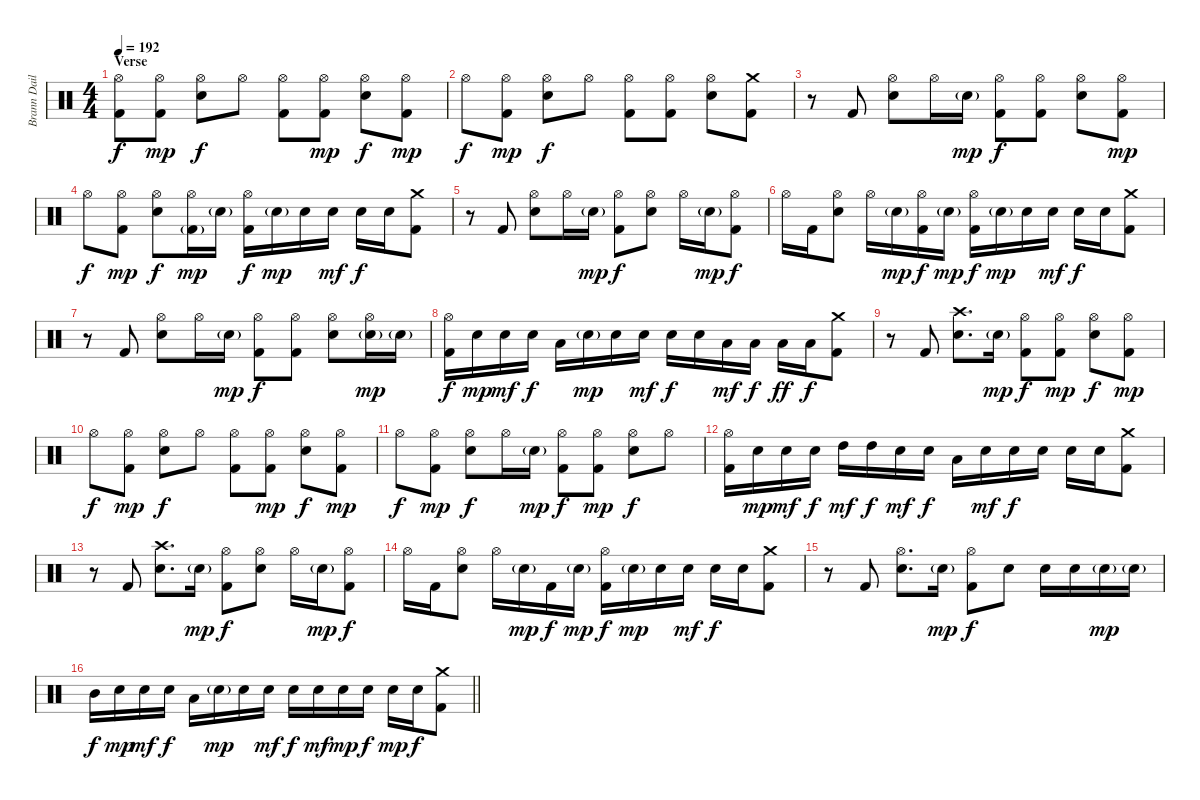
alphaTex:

\track ("Brann Dailor - Drums" "Brann Dail") {instrument percussion}
\staff {score}
\articulation defaults
\ts (4 4)
\section ("" "Verse")
\tempo 192
\clef neutral
\ks c
("Hi-Hat (open)" "Kick (hit) 2").8{dy f} ("Hi-Hat (open)" "Kick (hit) 2").8{dy mp} ("Hi-Hat (open)" "Electric Snare (hit)").8{dy f} "Hi-Hat (open)".8 ("Hi-Hat (open)" "Kick (hit) 2").8 ("Hi-Hat (open)" "Kick (hit) 2").8{dy mp} ("Hi-Hat (open)" "Electric Snare (hit)").8{dy f} ("Hi-Hat (open)" "Kick (hit) 2").8{dy mp} |
"Hi-Hat (open)".8{dy f} ("Hi-Hat (open)" "Kick (hit) 2").8{dy mp} ("Hi-Hat (open)" "Electric Snare (hit)").8{dy f} "Hi-Hat (open)".8 ("Hi-Hat (open)" "Kick (hit) 2").8 ("Hi-Hat (open)" "Kick (hit) 2").8 ("Hi-Hat (open)" "Electric Snare (hit)").8 ("Crash medium (hit)" "Kick (hit) 2").8 |
r.8 "Kick (hit) 2".8 ("Hi-Hat (open)" "Electric Snare (hit)").8 "Hi-Hat (open)".16 "Electric Snare (hit)"{g}.16{dy mp} ("Hi-Hat (open)" "Kick (hit) 2").8{dy f} ("Hi-Hat (open)" "Kick (hit) 2").8 ("Hi-Hat (open)" "Electric Snare (hit)").8 ("Hi-Hat (open)" "Kick (hit) 2").8{dy mp} |
"Hi-Hat (open)".8{dy f} ("Hi-Hat (open)" "Kick (hit) 2").8{dy mp} ("Hi-Hat (open)" "Electric Snare (hit)").8{dy f} ("Hi-Hat (open)" "Kick (hit) 2"{g}).16{dy mp} "Electric Snare (hit)"{g}.16 ("Hi-Hat (open)" "Kick (hit) 2").16{dy f} "Electric Snare (hit)"{g}.16{dy mp} "Electric Snare (hit)".16 "Electric Snare (hit)".16{dy mf} "Electric Snare (hit)".16{dy f} "Electric Snare (hit)".16 ("Crash medium (hit)" "Kick (hit) 2").8 |
r.8 "Kick (hit) 2".8 ("Hi-Hat (open)" "Electric Snare (hit)").8 "Hi-Hat (open)".16 "Electric Snare (hit)"{g}.16{dy mp} ("Hi-Hat (open)" "Kick (hit) 2").8{dy f} ("Hi-Hat (open)" "Electric Snare (hit)").8 "Hi-Hat (open)".16 "Electric Snare (hit)"{g}.16{dy mp} ("Hi-Hat (open)" "Kick (hit) 2").8{dy f} |
"Hi-Hat (open)".16 "Kick (hit) 2".16 ("Hi-Hat (open)" "Electric Snare (hit)").8 "Hi-Hat (open)".16 "Electric Snare (hit)"{g}.16{dy mp} ("Hi-Hat (open)" "Kick (hit) 2").16{dy f} "Electric Snare (hit)"{g}.16{dy mp} ("Hi-Hat (open)" "Kick (hit) 2").16{dy f} "Electric Snare (hit)"{g}.16{dy mp} "Electric Snare (hit)".16 "Electric Snare (hit)".16{dy mf} "Electric Snare (hit)".16{dy f} "Electric Snare (hit)".16 ("Crash medium (hit)" "Kick (hit) 2").8 |
r.8 "Kick (hit) 2".8 ("Hi-Hat (open)" "Electric Snare (hit)").8 "Hi-Hat (open)".16 "Electric Snare (hit)"{g}.16{dy mp} ("Hi-Hat (open)" "Kick (hit) 2").8{dy f} ("Hi-Hat (open)" "Kick (hit) 2").8 ("Hi-Hat (open)" "Electric Snare (hit)").8 ("Hi-Hat (open)" "Electric Snare (hit)"{g}).16{dy mp} "Electric Snare (hit)"{g}.16 |
("Hi-Hat (open)" "Kick (hit) 2").16{dy f} "Electric Snare (hit)".16{dy mp} "Electric Snare (hit)".16{dy mf} "Electric Snare (hit)".16{dy f} "Low Tom (hit)".16 "Electric Snare (hit)"{g}.16{dy mp} "Electric Snare (hit)".16 "Electric Snare (hit)".16{dy mf} "Electric Snare (hit)".16{dy f} "Electric Snare (hit)".16 "Low Tom (hit)".16{dy mf} "Low Tom (hit)".16{dy f} "Low Tom (hit)".16{dy ff} "Low Tom (hit)".16{dy f} ("Crash medium (hit)" "Kick (hit) 2").8 |
r.8 "Kick (hit) 2".8 ("Crash high (hit)" "Electric Snare (hit)").8{d} "Electric Snare (hit)"{g}.16{dy mp} ("Hi-Hat (open)" "Kick (hit) 2").8{dy f} ("Hi-Hat (open)" "Kick (hit) 2").8{dy mp} ("Hi-Hat (open)" "Electric Snare (hit)").8{dy f} ("Hi-Hat (open)" "Kick (hit) 2").8{dy mp} |
"Hi-Hat (open)".8{dy f} ("Hi-Hat (open)" "Kick (hit) 2").8{dy mp} ("Hi-Hat (open)" "Electric Snare (hit)").8{dy f} "Hi-Hat (open)".8 ("Hi-Hat (open)" "Kick (hit) 2").8 ("Hi-Hat (open)" "Kick (hit) 2").8{dy mp} ("Hi-Hat (open)" "Electric Snare (hit)").8{dy f} ("Hi-Hat (open)" "Kick (hit) 2").8{dy mp} |
"Hi-Hat (open)".8{dy f} ("Hi-Hat (open)" "Kick (hit) 2").8{dy mp} ("Hi-Hat (open)" "Electric Snare (hit)").8{dy f} "Hi-Hat (open)".16 "Electric Snare (hit)"{g}.16{dy mp} ("Hi-Hat (open)" "Kick (hit) 2").8{dy f} ("Hi-Hat (open)" "Kick (hit) 2").8{dy mp} ("Hi-Hat (open)" "Electric Snare (hit)").8{dy f} "Hi-Hat (open)".8 |
("Hi-Hat (open)" "Kick (hit) 2").16 "Electric Snare (hit)".16{dy mp} "Electric Snare (hit)".16{dy mf} "Electric Snare (hit)".16{dy f} "High Tom (hit)".16{dy mf} "High Tom (hit)".16{dy f} "Electric Snare (hit)".16{dy mf} "Electric Snare (hit)".16{dy f} "Low Tom (hit)".16 "Electric Snare (hit)".16{dy mf} "Electric Snare (hit)".16{dy f} "Electric Snare (hit)".16 "Electric Snare (hit)".16 "Electric Snare (hit)".16 ("Crash medium (hit)" "Kick (hit) 2").8 |
r.8 "Kick (hit) 2".8 ("Crash high (hit)" "Electric Snare (hit)").8{d} "Electric Snare (hit)"{g}.16{dy mp} ("Hi-Hat (open)" "Kick (hit) 2").8{dy f} ("Hi-Hat (open)" "Electric Snare (hit)").8 "Hi-Hat (open)".16 "Electric Snare (hit)"{g}.16{dy mp} ("Hi-Hat (open)" "Kick (hit) 2").8{dy f} |
"Hi-Hat (open)".16 "Kick (hit) 2".16 ("Hi-Hat (open)" "Electric Snare (hit)").8 "Hi-Hat (open)".16 "Electric Snare (hit)"{g}.16{dy mp} "Kick (hit) 2".16{dy f} "Electric Snare (hit)"{g}.16{dy mp} ("Hi-Hat (open)" "Kick (hit) 2").16{dy f} "Electric Snare (hit)"{g}.16{dy mp} "Electric Snare (hit)".16 "Electric Snare (hit)".16{dy mf} "Electric Snare (hit)".16{dy f} "Electric Snare (hit)".16 ("Crash medium (hit)" "Kick (hit) 2").8 |
r.8 "Kick (hit) 2".8 ("Hi-Hat (open)" "Electric Snare (hit)").8{d} "Electric Snare (hit)"{g}.16{dy mp} ("Hi-Hat (open)" "Kick (hit) 2").8{dy f} "Electric Snare (hit)".8 "Electric Snare (hit)".16 "Electric Snare (hit)".16 "Electric Snare (hit)"{g}.16{dy mp} "Electric Snare (hit)"{g}.16 |
\barLineRight lightlight "Mid Tom (hit)".16{dy f} "Electric Snare (hit)".16{dy mp} "Electric Snare (hit)".16{dy mf} "Electric Snare (hit)".16{dy f} "Low Tom (hit)".16 "Electric Snare (hit)"{g}.16{dy mp} "Electric Snare (hit)".16 "Electric Snare (hit)".16{dy mf} "Electric Snare (hit)".16{dy f} "Electric Snare (hit)".16{dy mf} "Electric Snare (hit)".16{dy mp} "Electric Snare (hit)".16{dy f} "Electric Snare (hit)".16{dy mp} "Electric Snare (hit)".16{dy f}
("Crash medium (hit)" "Kick (hit) 2").8
